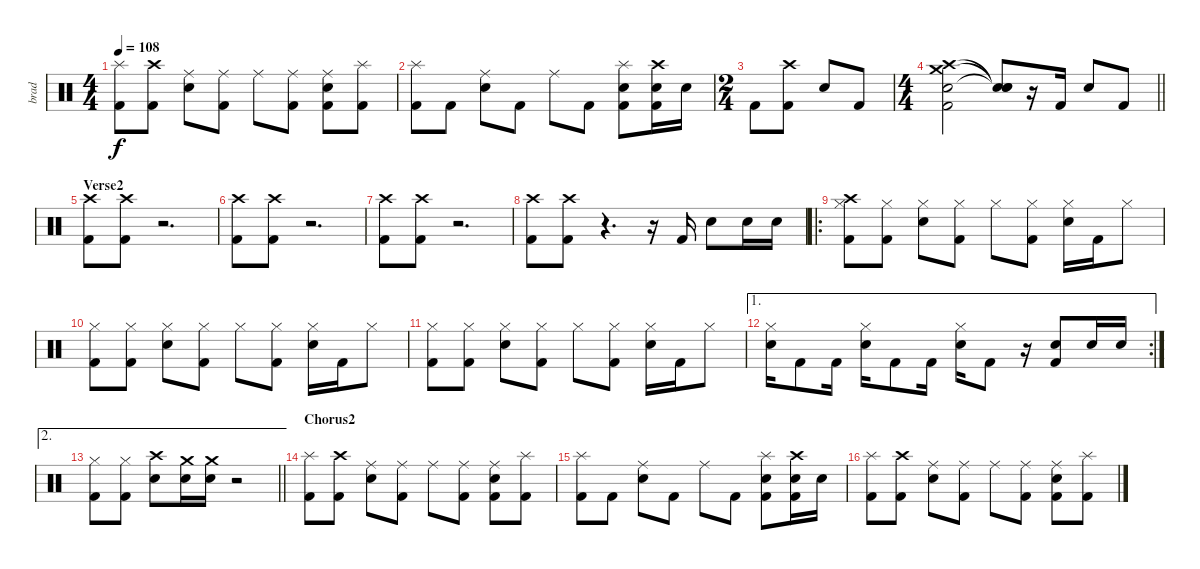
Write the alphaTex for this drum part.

\track ("brad" "brad") {instrument percussion}
\staff {score}
\articulation defaults
\ts (4 4)
\tempo 108
\clef neutral
\ks c
("Splash (hit)" "Kick (hit) 2").8{dy f} ("Crash high (hit)" "Kick (hit) 2").8 ("Ride (middle)" "Electric Snare (hit)").8 ("Ride (middle)" "Kick (hit) 2").8 "Ride (middle)".8 ("Ride (middle)" "Kick (hit) 2").8 ("Ride (middle)" "Electric Snare (hit)" "Kick (hit) 2").8 ("Splash (hit)" "Kick (hit) 2").8 |
("Splash (hit)" "Kick (hit) 2").8 "Kick (hit) 2".8 ("Ride (middle)" "Electric Snare (hit)").8 "Kick (hit) 2".8 "Ride (middle)".8 "Kick (hit) 2".8 ("Splash (hit)" "Electric Snare (hit)" "Kick (hit) 2").8 ("Crash high (hit)" "Electric Snare (hit)" "Kick (hit) 2").16 "Electric Snare (hit)".16 |
\ts (2 4)
"Kick (hit) 2".8 ("Crash high (hit)" "Kick (hit) 2").8 "Electric Snare (hit)".8 "Kick (hit) 2".8 |
\ts (4 4)
\barLineRight lightlight
("Crash medium (hit)" "Crash high (hit)" "Electric Snare (hit)" "Kick (hit) 2").2 ("Snare (hit)"{t} "Snare (hit)"{t} "Snare (hit)"{t}).8 r.16 "Kick (hit) 2".16 "Electric Snare (hit)".8 "Kick (hit) 2".8 |
\section ("" "Verse2")
("Crash high (hit)" "Kick (hit) 2").8 ("Crash high (hit)" "Kick (hit) 2").8 r.2{d} |
("Crash high (hit)" "Kick (hit) 2").8 ("Crash high (hit)" "Kick (hit) 2").8 r.2{d} |
("Crash high (hit)" "Kick (hit) 2").8 ("Crash high (hit)" "Kick (hit) 2").8 r.2{d} |
("Crash high (hit)" "Kick (hit) 2").8 ("Crash high (hit)" "Kick (hit) 2").8 r.4{d} r.16 "Kick (hit) 2".16 "Electric Snare (hit)".8 "Electric Snare (hit)".16 "Electric Snare (hit)".16 |
\ro
("Crash high (hit)" "Hi-Hat (closed)" "Kick (hit) 2").8 ("Hi-Hat (closed)" "Kick (hit) 2").8 ("Hi-Hat (closed)" "Electric Snare (hit)").8 ("Hi-Hat (closed)" "Kick (hit) 2").8 "Hi-Hat (closed)".8 ("Hi-Hat (closed)" "Kick (hit) 2").8 ("Hi-Hat (closed)" "Electric Snare (hit)").16 "Kick (hit) 2".16 "Hi-Hat (closed)".8 |
("Hi-Hat (closed)" "Kick (hit) 2").8 ("Hi-Hat (closed)" "Kick (hit) 2").8 ("Hi-Hat (closed)" "Electric Snare (hit)").8 ("Hi-Hat (closed)" "Kick (hit) 2").8 "Hi-Hat (closed)".8 ("Hi-Hat (closed)" "Kick (hit) 2").8 ("Hi-Hat (closed)" "Electric Snare (hit)").16 "Kick (hit) 2".16 "Hi-Hat (closed)".8 |
("Hi-Hat (closed)" "Kick (hit) 2").8 ("Hi-Hat (closed)" "Kick (hit) 2").8 ("Hi-Hat (closed)" "Electric Snare (hit)").8 ("Hi-Hat (closed)" "Kick (hit) 2").8 "Hi-Hat (closed)".8 ("Hi-Hat (closed)" "Kick (hit) 2").8 ("Hi-Hat (closed)" "Electric Snare (hit)").16 "Kick (hit) 2".16 "Hi-Hat (closed)".8 |
\ae 1
\rc 2
("Hi-Hat (closed)" "Electric Snare (hit)").16 "Kick (hit) 2".8 "Kick (hit) 2".16 ("Hi-Hat (closed)" "Electric Snare (hit)").16 "Kick (hit) 2".8 "Kick (hit) 2".16 ("Hi-Hat (closed)" "Electric Snare (hit)").16 "Kick (hit) 2".8 r.16 ("Electric Snare (hit)" "Kick (hit) 2").8 "Electric Snare (hit)".16 "Electric Snare (hit)".16 |
\ae 2
\barLineRight lightlight
("Hi-Hat (closed)" "Kick (hit) 2").8 ("Hi-Hat (closed)" "Kick (hit) 2").8 ("Crash high (hit)" "Electric Snare (hit)").8 ("Crash medium (hit)" "Electric Snare (hit)").16 ("Crash medium (hit)" "Electric Snare (hit)").16 r.2 |
\section ("" "Chorus2")
("Splash (hit)" "Kick (hit) 2").8 ("Crash high (hit)" "Kick (hit) 2").8 ("Ride (middle)" "Electric Snare (hit)").8 ("Ride (middle)" "Kick (hit) 2").8 "Ride (middle)".8 ("Ride (middle)" "Kick (hit) 2").8 ("Ride (middle)" "Electric Snare (hit)" "Kick (hit) 2").8 ("Splash (hit)" "Kick (hit) 2").8 |
("Splash (hit)" "Kick (hit) 2").8 "Kick (hit) 2".8 ("Ride (middle)" "Electric Snare (hit)").8 "Kick (hit) 2".8 "Ride (middle)".8 "Kick (hit) 2".8 ("Splash (hit)" "Electric Snare (hit)" "Kick (hit) 2").8 ("Crash high (hit)" "Electric Snare (hit)" "Kick (hit) 2").16 "Electric Snare (hit)".16 |
("Splash (hit)" "Kick (hit) 2").8 ("Crash high (hit)" "Kick (hit) 2").8 ("Ride (middle)" "Electric Snare (hit)").8 ("Ride (middle)" "Kick (hit) 2").8 "Ride (middle)".8 ("Ride (middle)" "Kick (hit) 2").8 ("Ride (middle)" "Electric Snare (hit)" "Kick (hit) 2").8 ("Splash (hit)" "Kick (hit) 2").8
